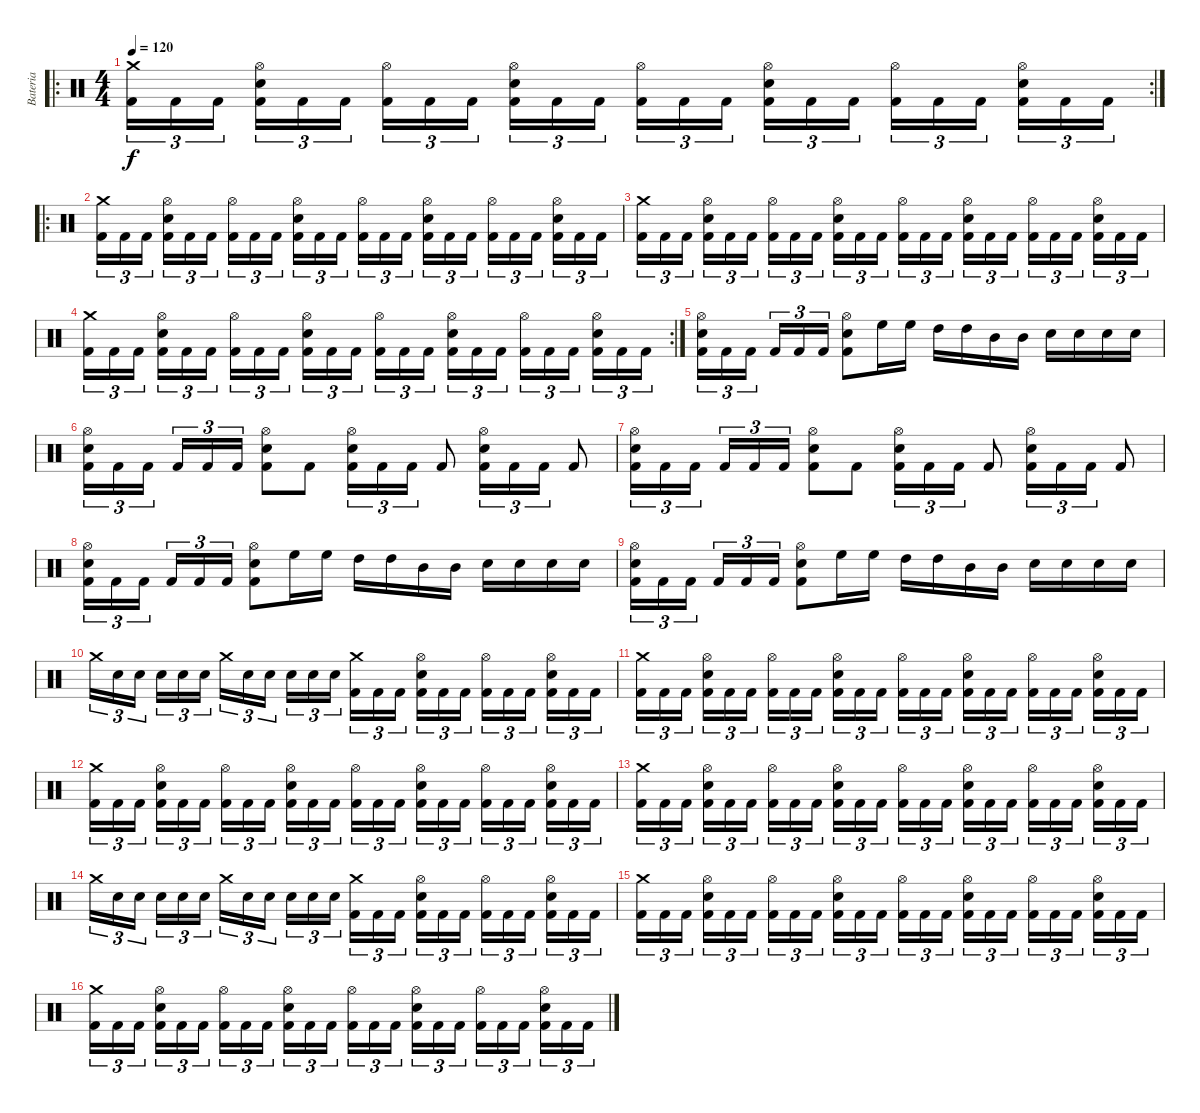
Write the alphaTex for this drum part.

\track ("Bateria" "Bateria") {instrument percussion}
\staff {score}
\articulation defaults
\ro
\rc 2
\ts (4 4)
\tempo 120
\clef neutral
\ks c
("Kick (hit) 2" "Crash medium (hit)").16{tu (3 2) dy f} "Kick (hit) 2".16{tu (3 2)} "Kick (hit) 2".16{tu (3 2)} ("Kick (hit) 2" "Snare (hit) 2" "Hi-Hat (open)").16{tu (3 2)} "Kick (hit) 2".16{tu (3 2)} "Kick (hit) 2".16{tu (3 2)} ("Kick (hit) 2" "Hi-Hat (open)").16{tu (3 2)} "Kick (hit) 2".16{tu (3 2)} "Kick (hit) 2".16{tu (3 2)} ("Kick (hit) 2" "Snare (hit) 2" "Hi-Hat (open)").16{tu (3 2)} "Kick (hit) 2".16{tu (3 2)} "Kick (hit) 2".16{tu (3 2)} ("Kick (hit) 2" "Hi-Hat (open)").16{tu (3 2)} "Kick (hit) 2".16{tu (3 2)} "Kick (hit) 2".16{tu (3 2)} ("Kick (hit) 2" "Snare (hit) 2" "Hi-Hat (open)").16{tu (3 2)} "Kick (hit) 2".16{tu (3 2)} "Kick (hit) 2".16{tu (3 2)} ("Kick (hit) 2" "Hi-Hat (open)").16{tu (3 2)} "Kick (hit) 2".16{tu (3 2)} "Kick (hit) 2".16{tu (3 2)} ("Kick (hit) 2" "Snare (hit) 2" "Hi-Hat (open)").16{tu (3 2)} "Kick (hit) 2".16{tu (3 2)} "Kick (hit) 2".16{tu (3 2)} |
\ro
("Kick (hit) 2" "Crash medium (hit)").16{tu (3 2)} "Kick (hit) 2".16{tu (3 2)} "Kick (hit) 2".16{tu (3 2)} ("Kick (hit) 2" "Snare (hit) 2" "Hi-Hat (open)").16{tu (3 2)} "Kick (hit) 2".16{tu (3 2)} "Kick (hit) 2".16{tu (3 2)} ("Kick (hit) 2" "Hi-Hat (open)").16{tu (3 2)} "Kick (hit) 2".16{tu (3 2)} "Kick (hit) 2".16{tu (3 2)} ("Kick (hit) 2" "Snare (hit) 2" "Hi-Hat (open)").16{tu (3 2)} "Kick (hit) 2".16{tu (3 2)} "Kick (hit) 2".16{tu (3 2)} ("Kick (hit) 2" "Hi-Hat (open)").16{tu (3 2)} "Kick (hit) 2".16{tu (3 2)} "Kick (hit) 2".16{tu (3 2)} ("Kick (hit) 2" "Snare (hit) 2" "Hi-Hat (open)").16{tu (3 2)} "Kick (hit) 2".16{tu (3 2)} "Kick (hit) 2".16{tu (3 2)} ("Kick (hit) 2" "Hi-Hat (open)").16{tu (3 2)} "Kick (hit) 2".16{tu (3 2)} "Kick (hit) 2".16{tu (3 2)} ("Kick (hit) 2" "Snare (hit) 2" "Hi-Hat (open)").16{tu (3 2)} "Kick (hit) 2".16{tu (3 2)} "Kick (hit) 2".16{tu (3 2)} |
("Kick (hit) 2" "Crash medium (hit)").16{tu (3 2)} "Kick (hit) 2".16{tu (3 2)} "Kick (hit) 2".16{tu (3 2)} ("Kick (hit) 2" "Snare (hit) 2" "Hi-Hat (open)").16{tu (3 2)} "Kick (hit) 2".16{tu (3 2)} "Kick (hit) 2".16{tu (3 2)} ("Kick (hit) 2" "Hi-Hat (open)").16{tu (3 2)} "Kick (hit) 2".16{tu (3 2)} "Kick (hit) 2".16{tu (3 2)} ("Kick (hit) 2" "Snare (hit) 2" "Hi-Hat (open)").16{tu (3 2)} "Kick (hit) 2".16{tu (3 2)} "Kick (hit) 2".16{tu (3 2)} ("Kick (hit) 2" "Hi-Hat (open)").16{tu (3 2)} "Kick (hit) 2".16{tu (3 2)} "Kick (hit) 2".16{tu (3 2)} ("Kick (hit) 2" "Snare (hit) 2" "Hi-Hat (open)").16{tu (3 2)} "Kick (hit) 2".16{tu (3 2)} "Kick (hit) 2".16{tu (3 2)} ("Kick (hit) 2" "Hi-Hat (open)").16{tu (3 2)} "Kick (hit) 2".16{tu (3 2)} "Kick (hit) 2".16{tu (3 2)} ("Kick (hit) 2" "Snare (hit) 2" "Hi-Hat (open)").16{tu (3 2)} "Kick (hit) 2".16{tu (3 2)} "Kick (hit) 2".16{tu (3 2)} |
\rc 2
("Kick (hit) 2" "Crash medium (hit)").16{tu (3 2)} "Kick (hit) 2".16{tu (3 2)} "Kick (hit) 2".16{tu (3 2)} ("Kick (hit) 2" "Snare (hit) 2" "Hi-Hat (open)").16{tu (3 2)} "Kick (hit) 2".16{tu (3 2)} "Kick (hit) 2".16{tu (3 2)} ("Kick (hit) 2" "Hi-Hat (open)").16{tu (3 2)} "Kick (hit) 2".16{tu (3 2)} "Kick (hit) 2".16{tu (3 2)} ("Kick (hit) 2" "Snare (hit) 2" "Hi-Hat (open)").16{tu (3 2)} "Kick (hit) 2".16{tu (3 2)} "Kick (hit) 2".16{tu (3 2)} ("Kick (hit) 2" "Hi-Hat (open)").16{tu (3 2)} "Kick (hit) 2".16{tu (3 2)} "Kick (hit) 2".16{tu (3 2)} ("Kick (hit) 2" "Snare (hit) 2" "Hi-Hat (open)").16{tu (3 2)} "Kick (hit) 2".16{tu (3 2)} "Kick (hit) 2".16{tu (3 2)} ("Kick (hit) 2" "Hi-Hat (open)").16{tu (3 2)} "Kick (hit) 2".16{tu (3 2)} "Kick (hit) 2".16{tu (3 2)} ("Kick (hit) 2" "Snare (hit) 2" "Hi-Hat (open)").16{tu (3 2)} "Kick (hit) 2".16{tu (3 2)} "Kick (hit) 2".16{tu (3 2)} |
("Hi-Hat (open)" "Snare (hit) 2" "Kick (hit) 2").16{tu (3 2)} "Kick (hit) 2".16{tu (3 2)} "Kick (hit) 2".16{tu (3 2)} "Kick (hit) 2".16{tu (3 2)} "Kick (hit) 2".16{tu (3 2)} "Kick (hit) 2".16{tu (3 2)} ("Hi-Hat (open)" "Snare (hit) 2" "Kick (hit) 2").8 "High Floor Tom (hit)".16 "High Floor Tom (hit)".16 "High Tom (hit)".16 "High Tom (hit)".16 "Mid Tom (hit)".16 "Mid Tom (hit)".16 "Snare (hit) 2".16 "Snare (hit) 2".16 "Snare (hit) 2".16 "Snare (hit) 2".16 |
("Snare (hit) 2" "Hi-Hat (open)" "Kick (hit) 2").16{tu (3 2)} "Kick (hit) 2".16{tu (3 2)} "Kick (hit) 2".16{tu (3 2)} "Kick (hit) 2".16{tu (3 2)} "Kick (hit) 2".16{tu (3 2)} "Kick (hit) 2".16{tu (3 2)} ("Hi-Hat (open)" "Snare (hit) 2" "Kick (hit) 2").8 "Kick (hit) 2".8 ("Hi-Hat (open)" "Snare (hit) 2" "Kick (hit) 2").16{tu (3 2)} "Kick (hit) 2".16{tu (3 2)} "Kick (hit) 2".16{tu (3 2)} "Kick (hit) 2".8 ("Hi-Hat (open)" "Snare (hit) 2" "Kick (hit) 2").16{tu (3 2)} "Kick (hit) 2".16{tu (3 2)} "Kick (hit) 2".16{tu (3 2)} "Kick (hit) 2".8 |
("Hi-Hat (open)" "Snare (hit) 2" "Kick (hit) 2").16{tu (3 2)} "Kick (hit) 2".16{tu (3 2)} "Kick (hit) 2".16{tu (3 2)} "Kick (hit) 2".16{tu (3 2)} "Kick (hit) 2".16{tu (3 2)} "Kick (hit) 2".16{tu (3 2)} ("Hi-Hat (open)" "Snare (hit) 2" "Kick (hit) 2").8 "Kick (hit) 2".8 ("Hi-Hat (open)" "Snare (hit) 2" "Kick (hit) 2").16{tu (3 2)} "Kick (hit) 2".16{tu (3 2)} "Kick (hit) 2".16{tu (3 2)} "Kick (hit) 2".8 ("Hi-Hat (open)" "Snare (hit) 2" "Kick (hit) 2").16{tu (3 2)} "Kick (hit) 2".16{tu (3 2)} "Kick (hit) 2".16{tu (3 2)} "Kick (hit) 2".8 |
("Hi-Hat (open)" "Snare (hit) 2" "Kick (hit) 2").16{tu (3 2)} "Kick (hit) 2".16{tu (3 2)} "Kick (hit) 2".16{tu (3 2)} "Kick (hit) 2".16{tu (3 2)} "Kick (hit) 2".16{tu (3 2)} "Kick (hit) 2".16{tu (3 2)} ("Hi-Hat (open)" "Snare (hit) 2" "Kick (hit) 2").8 "High Floor Tom (hit)".16 "High Floor Tom (hit)".16 "High Tom (hit)".16 "High Tom (hit)".16 "Mid Tom (hit)".16 "Mid Tom (hit)".16 "Snare (hit) 2".16 "Snare (hit) 2".16 "Snare (hit) 2".16 "Snare (hit) 2".16 |
("Hi-Hat (open)" "Snare (hit) 2" "Kick (hit) 2").16{tu (3 2)} "Kick (hit) 2".16{tu (3 2)} "Kick (hit) 2".16{tu (3 2)} "Kick (hit) 2".16{tu (3 2)} "Kick (hit) 2".16{tu (3 2)} "Kick (hit) 2".16{tu (3 2)} ("Hi-Hat (open)" "Snare (hit) 2" "Kick (hit) 2").8 "High Floor Tom (hit)".16 "High Floor Tom (hit)".16 "High Tom (hit)".16 "High Tom (hit)".16 "Mid Tom (hit)".16 "Mid Tom (hit)".16 "Snare (hit) 2".16 "Snare (hit) 2".16 "Snare (hit) 2".16 "Snare (hit) 2".16 |
"Crash medium (hit)".16{tu (3 2)} "Snare (hit) 2".16{tu (3 2)} "Snare (hit) 2".16{tu (3 2)} "Snare (hit) 2".16{tu (3 2)} "Snare (hit) 2".16{tu (3 2)} "Snare (hit) 2".16{tu (3 2)} "Crash medium (hit)".16{tu (3 2)} "Snare (hit) 2".16{tu (3 2)} "Snare (hit) 2".16{tu (3 2)} "Snare (hit) 2".16{tu (3 2)} "Snare (hit) 2".16{tu (3 2)} "Snare (hit) 2".16{tu (3 2)} ("Kick (hit) 2" "Crash medium (hit)").16{tu (3 2)} "Kick (hit) 2".16{tu (3 2)} "Kick (hit) 2".16{tu (3 2)} ("Kick (hit) 2" "Snare (hit) 2" "Hi-Hat (open)").16{tu (3 2)} "Kick (hit) 2".16{tu (3 2)} "Kick (hit) 2".16{tu (3 2)} ("Kick (hit) 2" "Hi-Hat (open)").16{tu (3 2)} "Kick (hit) 2".16{tu (3 2)} "Kick (hit) 2".16{tu (3 2)} ("Kick (hit) 2" "Snare (hit) 2" "Hi-Hat (open)").16{tu (3 2)} "Kick (hit) 2".16{tu (3 2)} "Kick (hit) 2".16{tu (3 2)} |
("Kick (hit) 2" "Crash medium (hit)").16{tu (3 2)} "Kick (hit) 2".16{tu (3 2)} "Kick (hit) 2".16{tu (3 2)} ("Kick (hit) 2" "Snare (hit) 2" "Hi-Hat (open)").16{tu (3 2)} "Kick (hit) 2".16{tu (3 2)} "Kick (hit) 2".16{tu (3 2)} ("Kick (hit) 2" "Hi-Hat (open)").16{tu (3 2)} "Kick (hit) 2".16{tu (3 2)} "Kick (hit) 2".16{tu (3 2)} ("Kick (hit) 2" "Snare (hit) 2" "Hi-Hat (open)").16{tu (3 2)} "Kick (hit) 2".16{tu (3 2)} "Kick (hit) 2".16{tu (3 2)} ("Kick (hit) 2" "Hi-Hat (open)").16{tu (3 2)} "Kick (hit) 2".16{tu (3 2)} "Kick (hit) 2".16{tu (3 2)} ("Kick (hit) 2" "Snare (hit) 2" "Hi-Hat (open)").16{tu (3 2)} "Kick (hit) 2".16{tu (3 2)} "Kick (hit) 2".16{tu (3 2)} ("Kick (hit) 2" "Hi-Hat (open)").16{tu (3 2)} "Kick (hit) 2".16{tu (3 2)} "Kick (hit) 2".16{tu (3 2)} ("Kick (hit) 2" "Snare (hit) 2" "Hi-Hat (open)").16{tu (3 2)} "Kick (hit) 2".16{tu (3 2)} "Kick (hit) 2".16{tu (3 2)} |
("Kick (hit) 2" "Crash medium (hit)").16{tu (3 2)} "Kick (hit) 2".16{tu (3 2)} "Kick (hit) 2".16{tu (3 2)} ("Kick (hit) 2" "Snare (hit) 2" "Hi-Hat (open)").16{tu (3 2)} "Kick (hit) 2".16{tu (3 2)} "Kick (hit) 2".16{tu (3 2)} ("Kick (hit) 2" "Hi-Hat (open)").16{tu (3 2)} "Kick (hit) 2".16{tu (3 2)} "Kick (hit) 2".16{tu (3 2)} ("Kick (hit) 2" "Snare (hit) 2" "Hi-Hat (open)").16{tu (3 2)} "Kick (hit) 2".16{tu (3 2)} "Kick (hit) 2".16{tu (3 2)} ("Kick (hit) 2" "Hi-Hat (open)").16{tu (3 2)} "Kick (hit) 2".16{tu (3 2)} "Kick (hit) 2".16{tu (3 2)} ("Kick (hit) 2" "Snare (hit) 2" "Hi-Hat (open)").16{tu (3 2)} "Kick (hit) 2".16{tu (3 2)} "Kick (hit) 2".16{tu (3 2)} ("Kick (hit) 2" "Hi-Hat (open)").16{tu (3 2)} "Kick (hit) 2".16{tu (3 2)} "Kick (hit) 2".16{tu (3 2)} ("Kick (hit) 2" "Snare (hit) 2" "Hi-Hat (open)").16{tu (3 2)} "Kick (hit) 2".16{tu (3 2)} "Kick (hit) 2".16{tu (3 2)} |
("Kick (hit) 2" "Crash medium (hit)").16{tu (3 2)} "Kick (hit) 2".16{tu (3 2)} "Kick (hit) 2".16{tu (3 2)} ("Kick (hit) 2" "Snare (hit) 2" "Hi-Hat (open)").16{tu (3 2)} "Kick (hit) 2".16{tu (3 2)} "Kick (hit) 2".16{tu (3 2)} ("Kick (hit) 2" "Hi-Hat (open)").16{tu (3 2)} "Kick (hit) 2".16{tu (3 2)} "Kick (hit) 2".16{tu (3 2)} ("Kick (hit) 2" "Snare (hit) 2" "Hi-Hat (open)").16{tu (3 2)} "Kick (hit) 2".16{tu (3 2)} "Kick (hit) 2".16{tu (3 2)} ("Kick (hit) 2" "Hi-Hat (open)").16{tu (3 2)} "Kick (hit) 2".16{tu (3 2)} "Kick (hit) 2".16{tu (3 2)} ("Kick (hit) 2" "Snare (hit) 2" "Hi-Hat (open)").16{tu (3 2)} "Kick (hit) 2".16{tu (3 2)} "Kick (hit) 2".16{tu (3 2)} ("Kick (hit) 2" "Hi-Hat (open)").16{tu (3 2)} "Kick (hit) 2".16{tu (3 2)} "Kick (hit) 2".16{tu (3 2)} ("Kick (hit) 2" "Snare (hit) 2" "Hi-Hat (open)").16{tu (3 2)} "Kick (hit) 2".16{tu (3 2)} "Kick (hit) 2".16{tu (3 2)} |
"Crash medium (hit)".16{tu (3 2)} "Snare (hit) 2".16{tu (3 2)} "Snare (hit) 2".16{tu (3 2)} "Snare (hit) 2".16{tu (3 2)} "Snare (hit) 2".16{tu (3 2)} "Snare (hit) 2".16{tu (3 2)} "Crash medium (hit)".16{tu (3 2)} "Snare (hit) 2".16{tu (3 2)} "Snare (hit) 2".16{tu (3 2)} "Snare (hit) 2".16{tu (3 2)} "Snare (hit) 2".16{tu (3 2)} "Snare (hit) 2".16{tu (3 2)} ("Kick (hit) 2" "Crash medium (hit)").16{tu (3 2)} "Kick (hit) 2".16{tu (3 2)} "Kick (hit) 2".16{tu (3 2)} ("Kick (hit) 2" "Snare (hit) 2" "Hi-Hat (open)").16{tu (3 2)} "Kick (hit) 2".16{tu (3 2)} "Kick (hit) 2".16{tu (3 2)} ("Kick (hit) 2" "Hi-Hat (open)").16{tu (3 2)} "Kick (hit) 2".16{tu (3 2)} "Kick (hit) 2".16{tu (3 2)} ("Kick (hit) 2" "Snare (hit) 2" "Hi-Hat (open)").16{tu (3 2)} "Kick (hit) 2".16{tu (3 2)} "Kick (hit) 2".16{tu (3 2)} |
("Kick (hit) 2" "Crash medium (hit)").16{tu (3 2)} "Kick (hit) 2".16{tu (3 2)} "Kick (hit) 2".16{tu (3 2)} ("Kick (hit) 2" "Snare (hit) 2" "Hi-Hat (open)").16{tu (3 2)} "Kick (hit) 2".16{tu (3 2)} "Kick (hit) 2".16{tu (3 2)} ("Kick (hit) 2" "Hi-Hat (open)").16{tu (3 2)} "Kick (hit) 2".16{tu (3 2)} "Kick (hit) 2".16{tu (3 2)} ("Kick (hit) 2" "Snare (hit) 2" "Hi-Hat (open)").16{tu (3 2)} "Kick (hit) 2".16{tu (3 2)} "Kick (hit) 2".16{tu (3 2)} ("Kick (hit) 2" "Hi-Hat (open)").16{tu (3 2)} "Kick (hit) 2".16{tu (3 2)} "Kick (hit) 2".16{tu (3 2)} ("Kick (hit) 2" "Snare (hit) 2" "Hi-Hat (open)").16{tu (3 2)} "Kick (hit) 2".16{tu (3 2)} "Kick (hit) 2".16{tu (3 2)} ("Kick (hit) 2" "Hi-Hat (open)").16{tu (3 2)} "Kick (hit) 2".16{tu (3 2)} "Kick (hit) 2".16{tu (3 2)} ("Kick (hit) 2" "Snare (hit) 2" "Hi-Hat (open)").16{tu (3 2)} "Kick (hit) 2".16{tu (3 2)} "Kick (hit) 2".16{tu (3 2)} |
("Kick (hit) 2" "Crash medium (hit)").16{tu (3 2)} "Kick (hit) 2".16{tu (3 2)} "Kick (hit) 2".16{tu (3 2)} ("Kick (hit) 2" "Snare (hit) 2" "Hi-Hat (open)").16{tu (3 2)} "Kick (hit) 2".16{tu (3 2)} "Kick (hit) 2".16{tu (3 2)} ("Kick (hit) 2" "Hi-Hat (open)").16{tu (3 2)} "Kick (hit) 2".16{tu (3 2)} "Kick (hit) 2".16{tu (3 2)} ("Kick (hit) 2" "Snare (hit) 2" "Hi-Hat (open)").16{tu (3 2)} "Kick (hit) 2".16{tu (3 2)} "Kick (hit) 2".16{tu (3 2)} ("Kick (hit) 2" "Hi-Hat (open)").16{tu (3 2)} "Kick (hit) 2".16{tu (3 2)} "Kick (hit) 2".16{tu (3 2)} ("Kick (hit) 2" "Snare (hit) 2" "Hi-Hat (open)").16{tu (3 2)} "Kick (hit) 2".16{tu (3 2)} "Kick (hit) 2".16{tu (3 2)} ("Kick (hit) 2" "Hi-Hat (open)").16{tu (3 2)} "Kick (hit) 2".16{tu (3 2)} "Kick (hit) 2".16{tu (3 2)} ("Kick (hit) 2" "Snare (hit) 2" "Hi-Hat (open)").16{tu (3 2)} "Kick (hit) 2".16{tu (3 2)} "Kick (hit) 2".16{tu (3 2)}
